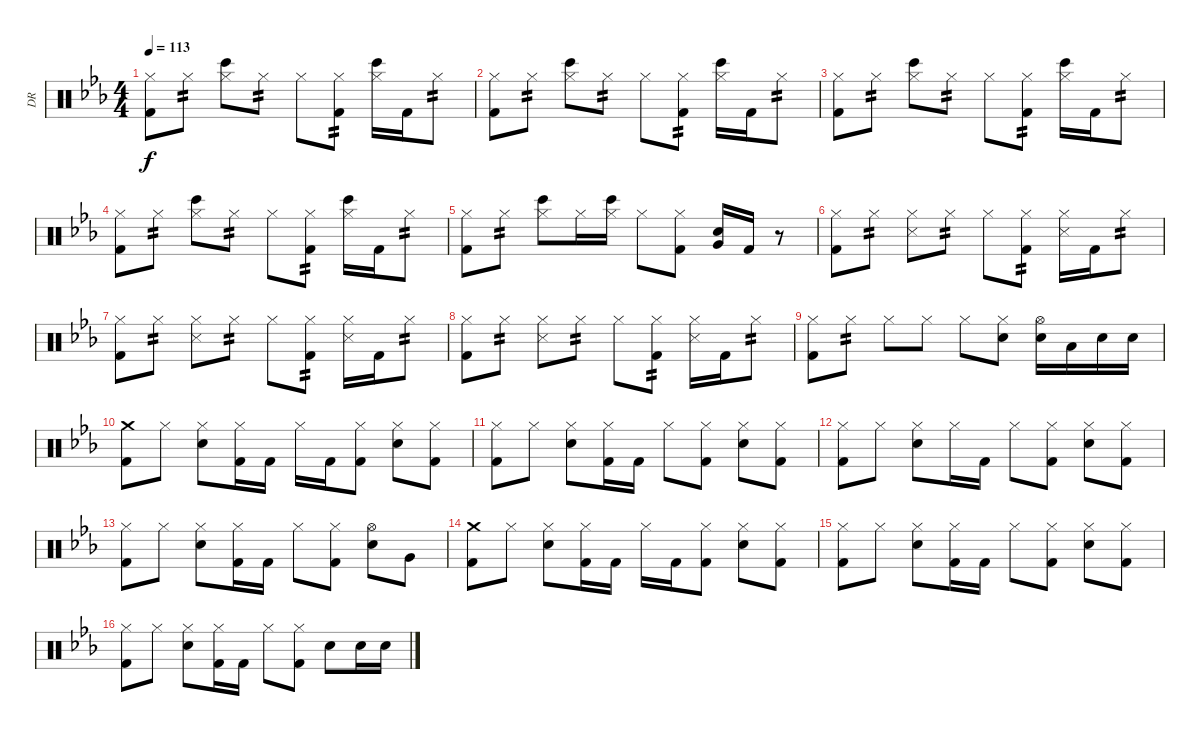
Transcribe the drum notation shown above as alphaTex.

\track ("DR" "DR") {instrument percussion}
\staff {score}
\articulation defaults
\ts (4 4)
\tempo 113
\clef neutral
\ks cminor
("Hi-Hat (closed)" "Kick (hit) 2").8{dy f} "Hi-Hat (closed)".8{tp 2} ("Hi-Hat (closed)" "Bongo High (hit)").8 "Hi-Hat (closed)".8{tp 2} "Hi-Hat (closed)".8 ("Hi-Hat (closed)" "Kick (hit) 2").8{tp 2} ("Hi-Hat (closed)" "Bongo High (hit)").16 "Kick (hit) 2".16 "Hi-Hat (closed)".8{tp 2} |
("Hi-Hat (closed)" "Kick (hit) 2").8 "Hi-Hat (closed)".8{tp 2} ("Hi-Hat (closed)" "Bongo High (hit)").8 "Hi-Hat (closed)".8{tp 2} "Hi-Hat (closed)".8 ("Hi-Hat (closed)" "Kick (hit) 2").8{tp 2} ("Hi-Hat (closed)" "Bongo High (hit)").16 "Kick (hit) 2".16 "Hi-Hat (closed)".8{tp 2} |
("Hi-Hat (closed)" "Kick (hit) 2").8 "Hi-Hat (closed)".8{tp 2} ("Hi-Hat (closed)" "Bongo High (hit)").8 "Hi-Hat (closed)".8{tp 2} "Hi-Hat (closed)".8 ("Hi-Hat (closed)" "Kick (hit) 2").8{tp 2} ("Hi-Hat (closed)" "Bongo High (hit)").16 "Kick (hit) 2".16 "Hi-Hat (closed)".8{tp 2} |
("Hi-Hat (closed)" "Kick (hit) 2").8 "Hi-Hat (closed)".8{tp 2} ("Hi-Hat (closed)" "Bongo High (hit)").8 "Hi-Hat (closed)".8{tp 2} "Hi-Hat (closed)".8 ("Hi-Hat (closed)" "Kick (hit) 2").8{tp 2} ("Hi-Hat (closed)" "Bongo High (hit)").16 "Kick (hit) 2".16 "Hi-Hat (closed)".8{tp 2} |
("Hi-Hat (closed)" "Kick (hit) 2").8 "Hi-Hat (closed)".8{tp 2} ("Hi-Hat (closed)" "Bongo High (hit)").8 "Hi-Hat (closed)".16 ("Hi-Hat (closed)" "Bongo High (hit)").16 "Hi-Hat (closed)".8 ("Hi-Hat (closed)" "Kick (hit) 2").8 ("Electric Snare (hit)" "Very Low Tom (hit)").16 "Kick (hit) 2".16 r.8 |
("Hi-Hat (closed)" "Kick (hit) 2").8 "Hi-Hat (closed)".8{tp 2} ("Hi-Hat (closed)" "Snare (side stick) 3").8 "Hi-Hat (closed)".8{tp 2} "Hi-Hat (closed)".8 ("Hi-Hat (closed)" "Kick (hit) 2").8{tp 2} ("Hi-Hat (closed)" "Snare (side stick) 3").16 "Kick (hit) 2".16 "Hi-Hat (closed)".8{tp 2} |
("Hi-Hat (closed)" "Kick (hit) 2").8 "Hi-Hat (closed)".8{tp 2} ("Hi-Hat (closed)" "Snare (side stick) 3").8 "Hi-Hat (closed)".8{tp 2} "Hi-Hat (closed)".8 ("Hi-Hat (closed)" "Kick (hit) 2").8{tp 2} ("Hi-Hat (closed)" "Snare (side stick) 3").16 "Kick (hit) 2".16 "Hi-Hat (closed)".8{tp 2} |
("Hi-Hat (closed)" "Kick (hit) 2").8 "Hi-Hat (closed)".8{tp 2} ("Hi-Hat (closed)" "Snare (side stick) 3").8 "Hi-Hat (closed)".8{tp 2} "Hi-Hat (closed)".8 ("Hi-Hat (closed)" "Kick (hit) 2").8{tp 2} ("Hi-Hat (closed)" "Snare (side stick) 3").16 "Kick (hit) 2".16 "Hi-Hat (closed)".8{tp 2} |
("Hi-Hat (closed)" "Kick (hit) 2").8 "Hi-Hat (closed)".8{tp 2} "Hi-Hat (closed)".8 "Hi-Hat (closed)".8 "Hi-Hat (closed)".8 ("Hi-Hat (closed)" "Electric Snare (hit)").8 ("Hi-Hat (open)" "Electric Snare (hit)").16 "Low Tom (hit)".16 "Electric Snare (hit)".16 "Electric Snare (hit)".16 |
("Crash medium (hit)" "Kick (hit) 2").8 "Hi-Hat (closed)".8 ("Hi-Hat (closed)" "Electric Snare (hit)").8 ("Hi-Hat (closed)" "Kick (hit) 2").16 "Kick (hit) 2".16 "Hi-Hat (closed)".16 "Kick (hit) 2".16 ("Hi-Hat (closed)" "Kick (hit) 2").8 ("Hi-Hat (closed)" "Electric Snare (hit)").8 ("Hi-Hat (closed)" "Kick (hit) 2").8 |
("Hi-Hat (closed)" "Kick (hit) 2").8 "Hi-Hat (closed)".8 ("Hi-Hat (closed)" "Electric Snare (hit)").8 ("Hi-Hat (closed)" "Kick (hit) 2").16 "Kick (hit) 2".16 "Hi-Hat (closed)".8 ("Hi-Hat (closed)" "Kick (hit) 2").8 ("Hi-Hat (closed)" "Electric Snare (hit)").8 ("Hi-Hat (closed)" "Kick (hit) 2").8 |
("Hi-Hat (closed)" "Kick (hit) 2").8 "Hi-Hat (closed)".8 ("Hi-Hat (closed)" "Electric Snare (hit)").8 "Hi-Hat (closed)".16 "Kick (hit) 2".16 "Hi-Hat (closed)".8 ("Hi-Hat (closed)" "Kick (hit) 2").8 ("Hi-Hat (closed)" "Electric Snare (hit)").8 ("Hi-Hat (closed)" "Kick (hit) 2").8 |
("Hi-Hat (closed)" "Kick (hit) 2").8 "Hi-Hat (closed)".8 ("Hi-Hat (closed)" "Electric Snare (hit)").8 ("Hi-Hat (closed)" "Kick (hit) 2").16 "Kick (hit) 2".16 "Hi-Hat (closed)".8 ("Hi-Hat (closed)" "Kick (hit) 2").8 ("Hi-Hat (open)" "Electric Snare (hit)").8 "Very Low Tom (hit)".8 |
("Crash medium (hit)" "Kick (hit) 2").8 "Hi-Hat (closed)".8 ("Hi-Hat (closed)" "Electric Snare (hit)").8 ("Hi-Hat (closed)" "Kick (hit) 2").16 "Kick (hit) 2".16 "Hi-Hat (closed)".16 "Kick (hit) 2".16 ("Hi-Hat (closed)" "Kick (hit) 2").8 ("Hi-Hat (closed)" "Electric Snare (hit)").8 ("Hi-Hat (closed)" "Kick (hit) 2").8 |
("Hi-Hat (closed)" "Kick (hit) 2").8 "Hi-Hat (closed)".8 ("Hi-Hat (closed)" "Electric Snare (hit)").8 ("Hi-Hat (closed)" "Kick (hit) 2").16 "Kick (hit) 2".16 "Hi-Hat (closed)".8 ("Hi-Hat (closed)" "Kick (hit) 2").8 ("Hi-Hat (closed)" "Electric Snare (hit)").8 ("Hi-Hat (closed)" "Kick (hit) 2").8 |
("Hi-Hat (closed)" "Kick (hit) 2").8 "Hi-Hat (closed)".8 ("Hi-Hat (closed)" "Electric Snare (hit)").8 ("Hi-Hat (closed)" "Kick (hit) 2").16 "Kick (hit) 2".16 "Hi-Hat (closed)".8 ("Hi-Hat (closed)" "Kick (hit) 2").8 "Electric Snare (hit)".8 "Electric Snare (hit)".16 "Electric Snare (hit)".16
